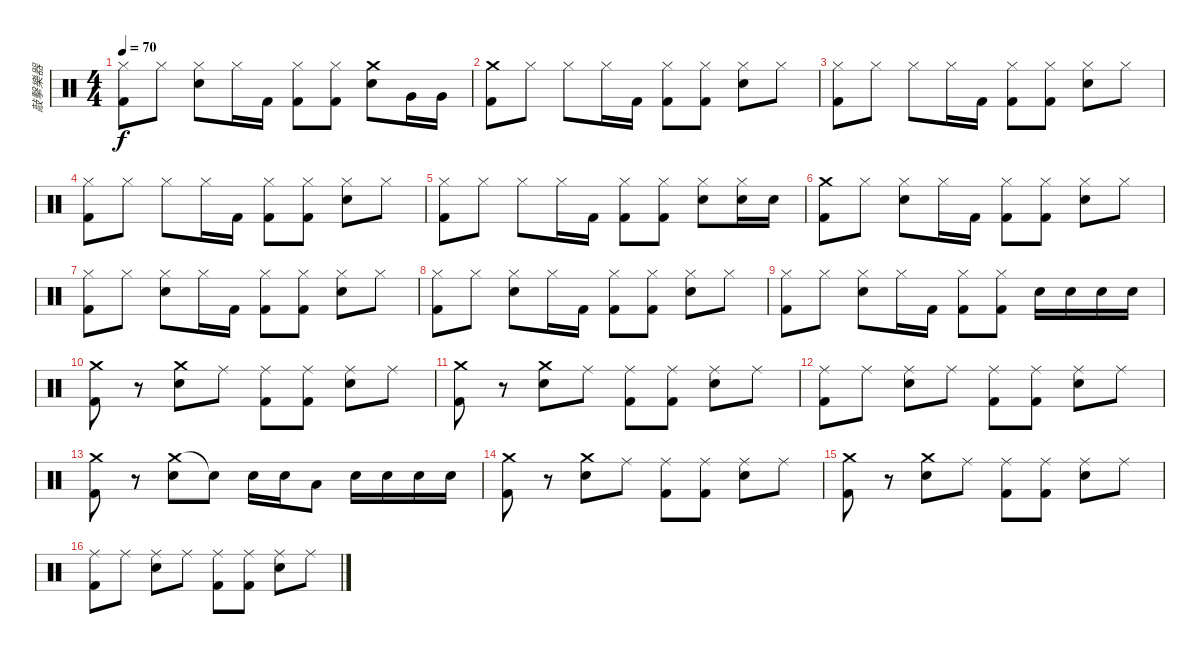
\track ("敲擊樂器" "敲擊樂器") {instrument percussion}
\staff {score}
\articulation defaults
\ts (4 4)
\tempo 70
\clef neutral
\ks c
("Hi-Hat (closed)" "Kick (hit) 2").8{dy f} "Hi-Hat (closed)".8 ("Hi-Hat (closed)" "Snare (hit) 2").8 "Hi-Hat (closed)".16 "Kick (hit) 2".16 ("Hi-Hat (closed)" "Kick (hit) 2").8 ("Hi-Hat (closed)" "Kick (hit) 2").8 ("Crash medium (hit)" "Snare (hit) 2").8 "Very Low Tom (hit)".16 "Very Low Tom (hit)".16 |
("Crash medium (hit)" "Kick (hit) 2").8 "Hi-Hat (closed)".8 "Hi-Hat (closed)".8 "Hi-Hat (closed)".16 "Kick (hit) 2".16 ("Hi-Hat (closed)" "Kick (hit) 2").8 ("Hi-Hat (closed)" "Kick (hit) 2").8 ("Hi-Hat (closed)" "Snare (hit) 2").8 "Hi-Hat (closed)".8 |
("Hi-Hat (closed)" "Kick (hit) 2").8 "Hi-Hat (closed)".8 "Hi-Hat (closed)".8 "Hi-Hat (closed)".16 "Kick (hit) 2".16 ("Hi-Hat (closed)" "Kick (hit) 2").8 ("Hi-Hat (closed)" "Kick (hit) 2").8 ("Hi-Hat (closed)" "Snare (hit) 2").8 "Hi-Hat (closed)".8 |
("Hi-Hat (closed)" "Kick (hit) 2").8 "Hi-Hat (closed)".8 "Hi-Hat (closed)".8 "Hi-Hat (closed)".16 "Kick (hit) 2".16 ("Hi-Hat (closed)" "Kick (hit) 2").8 ("Hi-Hat (closed)" "Kick (hit) 2").8 ("Hi-Hat (closed)" "Snare (hit) 2").8 "Hi-Hat (closed)".8 |
("Hi-Hat (closed)" "Kick (hit) 2").8 "Hi-Hat (closed)".8 "Hi-Hat (closed)".8 "Hi-Hat (closed)".16 "Kick (hit) 2".16 ("Hi-Hat (closed)" "Kick (hit) 2").8 ("Hi-Hat (closed)" "Kick (hit) 2").8 ("Hi-Hat (closed)" "Snare (hit) 2").8 ("Hi-Hat (closed)" "Snare (hit) 2").16 "Snare (hit) 2".16 |
("Crash medium (hit)" "Kick (hit) 2").8 "Hi-Hat (closed)".8 ("Hi-Hat (closed)" "Snare (hit) 2").8 "Hi-Hat (closed)".16 "Kick (hit) 2".16 ("Hi-Hat (closed)" "Kick (hit) 2").8 ("Hi-Hat (closed)" "Kick (hit) 2").8 ("Hi-Hat (closed)" "Snare (hit) 2").8 "Hi-Hat (closed)".8 |
("Hi-Hat (closed)" "Kick (hit) 2").8 "Hi-Hat (closed)".8 ("Hi-Hat (closed)" "Snare (hit) 2").8 "Hi-Hat (closed)".16 "Kick (hit) 2".16 ("Hi-Hat (closed)" "Kick (hit) 2").8 ("Hi-Hat (closed)" "Kick (hit) 2").8 ("Hi-Hat (closed)" "Snare (hit) 2").8 "Hi-Hat (closed)".8 |
("Hi-Hat (closed)" "Kick (hit) 2").8 "Hi-Hat (closed)".8 ("Hi-Hat (closed)" "Snare (hit) 2").8 "Hi-Hat (closed)".16 "Kick (hit) 2".16 ("Hi-Hat (closed)" "Kick (hit) 2").8 ("Hi-Hat (closed)" "Kick (hit) 2").8 ("Hi-Hat (closed)" "Snare (hit) 2").8 "Hi-Hat (closed)".8 |
("Hi-Hat (closed)" "Kick (hit) 2").8 "Hi-Hat (closed)".8 ("Hi-Hat (closed)" "Snare (hit) 2").8 "Hi-Hat (closed)".16 "Kick (hit) 2".16 ("Hi-Hat (closed)" "Kick (hit) 2").8 ("Hi-Hat (closed)" "Kick (hit) 2").8 "Snare (hit) 2".16 "Snare (hit) 2".16 "Snare (hit) 2".16 "Snare (hit) 2".16 |
("Crash medium (hit)" "Kick (hit) 2").8 r.8 ("Crash medium (hit)" "Snare (hit) 2").8 "Ride (middle)".8 ("Ride (middle)" "Kick (hit) 2").8 ("Ride (middle)" "Kick (hit) 2").8 ("Ride (middle)" "Snare (hit) 2").8 "Ride (middle)".8 |
("Crash medium (hit)" "Kick (hit) 2").8 r.8 ("Crash medium (hit)" "Snare (hit) 2").8 "Ride (middle)".8 ("Ride (middle)" "Kick (hit) 2").8 ("Ride (middle)" "Kick (hit) 2").8 ("Ride (middle)" "Snare (hit) 2").8 "Ride (middle)".8 |
("Ride (middle)" "Kick (hit) 2").8 "Ride (middle)".8 ("Ride (middle)" "Snare (hit) 2").8 "Ride (middle)".8 ("Ride (middle)" "Kick (hit) 2").8 ("Ride (middle)" "Kick (hit) 2").8 ("Ride (middle)" "Snare (hit) 2").8 "Ride (middle)".8 |
("Crash medium (hit)" "Kick (hit) 2").8 r.8 ("Crash medium (hit)" "Snare (hit) 2").8 "Snare (hit) 2"{t}.8 "Snare (hit) 2".16 "Snare (hit) 2".16 "Low Floor Tom (hit)".8 "Snare (hit) 2".16 "Snare (hit) 2".16 "Snare (hit) 2".16 "Snare (hit) 2".16 |
("Crash medium (hit)" "Kick (hit) 2").8 r.8 ("Crash medium (hit)" "Snare (hit) 2").8 "Ride (middle)".8 ("Ride (middle)" "Kick (hit) 2").8 ("Ride (middle)" "Kick (hit) 2").8 ("Ride (middle)" "Snare (hit) 2").8 "Ride (middle)".8 |
("Crash medium (hit)" "Kick (hit) 2").8 r.8 ("Crash medium (hit)" "Snare (hit) 2").8 "Ride (middle)".8 ("Ride (middle)" "Kick (hit) 2").8 ("Ride (middle)" "Kick (hit) 2").8 ("Ride (middle)" "Snare (hit) 2").8 "Ride (middle)".8 |
("Ride (middle)" "Kick (hit) 2").8 "Ride (middle)".8 ("Ride (middle)" "Snare (hit) 2").8 "Ride (middle)".8 ("Ride (middle)" "Kick (hit) 2").8 ("Ride (middle)" "Kick (hit) 2").8 ("Ride (middle)" "Snare (hit) 2").8 "Ride (middle)".8
